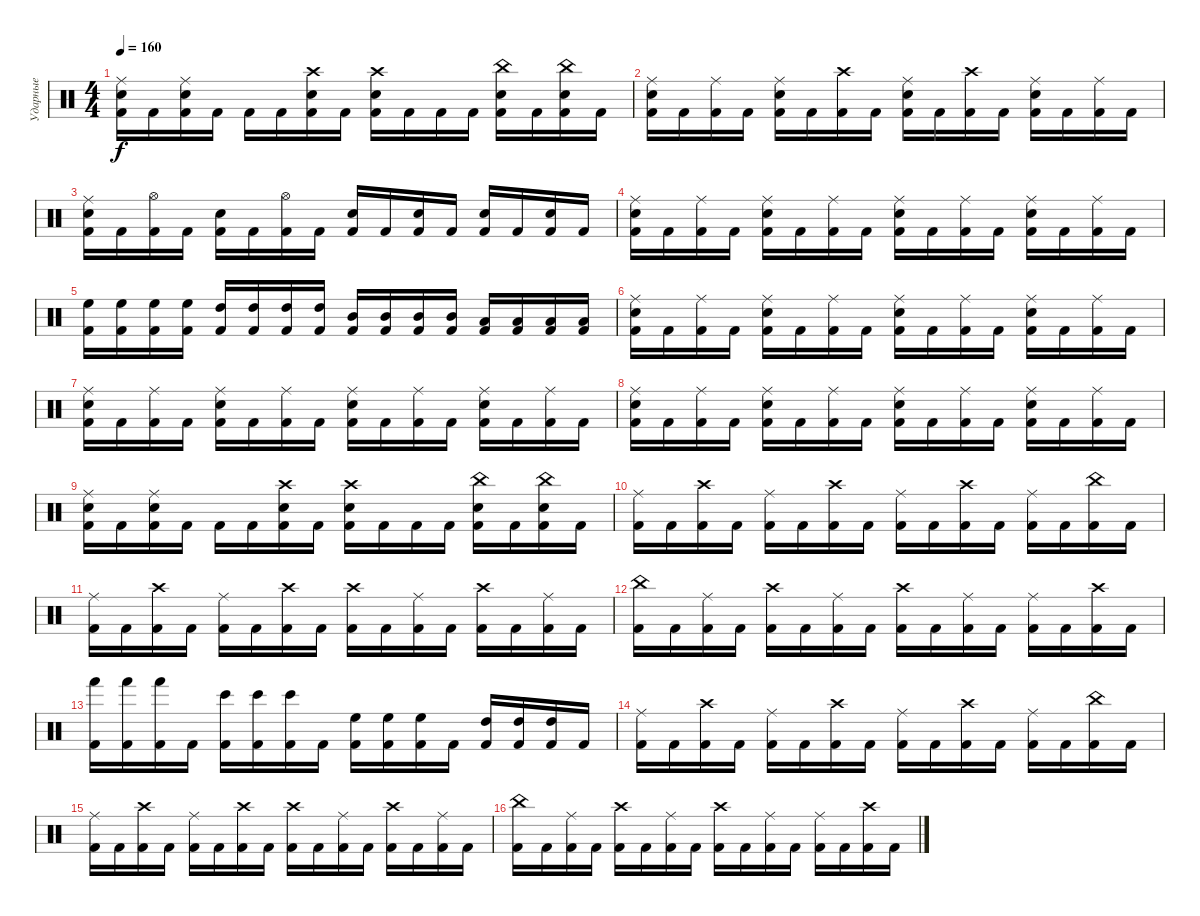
\track ("Ударные" "Ударные") {instrument percussion}
\staff {score}
\articulation defaults
\ts (4 4)
\tempo 160
\clef neutral
\ks c
("Kick (hit) 2" "Snare (hit) 2" "Ride (middle)").16{dy f} "Kick (hit) 2".16 ("Kick (hit) 2" "Snare (hit) 2" "Ride (middle)").16 "Kick (hit) 2".16 "Kick (hit) 2".16 "Kick (hit) 2".16 ("Kick (hit) 2" "Snare (hit) 2" "Crash high (hit)").16 "Kick (hit) 2".16 ("Kick (hit) 2" "Snare (hit) 2" "Crash high (hit)").16 "Kick (hit) 2".16 "Kick (hit) 2".16 "Kick (hit) 2".16 ("Kick (hit) 2" "Snare (hit) 2" "China (hit)").16 "Kick (hit) 2".16 ("Kick (hit) 2" "Snare (hit) 2" "China (hit)").16 "Kick (hit) 2".16 |
("Kick (hit) 2" "Ride (middle)" "Snare (hit) 2").16 "Kick (hit) 2".16 ("Kick (hit) 2" "Ride (middle)").16 "Kick (hit) 2".16 ("Kick (hit) 2" "Ride (middle)" "Snare (hit) 2").16 "Kick (hit) 2".16 ("Kick (hit) 2" "Crash high (hit)").16 "Kick (hit) 2".16 ("Kick (hit) 2" "Ride (middle)" "Snare (hit) 2").16 "Kick (hit) 2".16 ("Kick (hit) 2" "Crash high (hit)").16 "Kick (hit) 2".16 ("Kick (hit) 2" "Ride (middle)" "Snare (hit) 2").16 "Kick (hit) 2".16 ("Kick (hit) 2" "Ride (middle)").16 "Kick (hit) 2".16 |
("Kick (hit) 2" "Ride (middle)" "Snare (hit) 2").16 "Kick (hit) 2".16 ("Kick (hit) 2" "Hi-Hat (open)").16 "Kick (hit) 2".16 ("Kick (hit) 2" "Snare (hit) 2").16 "Kick (hit) 2".16 ("Kick (hit) 2" "Hi-Hat (open)").16 "Kick (hit) 2".16 ("Kick (hit) 2" "Snare (hit) 2").16 "Kick (hit) 2".16 ("Kick (hit) 2" "Snare (hit) 2").16 "Kick (hit) 2".16 ("Kick (hit) 2" "Snare (hit) 2").16 "Kick (hit) 2".16 ("Kick (hit) 2" "Snare (hit) 2").16 "Kick (hit) 2".16 |
("Kick (hit) 2" "Ride (middle)" "Snare (hit) 2").16 "Kick (hit) 2".16 ("Kick (hit) 2" "Ride (middle)").16 "Kick (hit) 2".16 ("Kick (hit) 2" "Ride (middle)" "Snare (hit) 2").16 "Kick (hit) 2".16 ("Kick (hit) 2" "Ride (middle)").16 "Kick (hit) 2".16 ("Kick (hit) 2" "Ride (middle)" "Snare (hit) 2").16 "Kick (hit) 2".16 ("Kick (hit) 2" "Ride (middle)").16 "Kick (hit) 2".16 ("Kick (hit) 2" "Ride (middle)" "Snare (hit) 2").16 "Kick (hit) 2".16 ("Kick (hit) 2" "Ride (middle)").16 "Kick (hit) 2".16 |
("Kick (hit) 2" "High Floor Tom (hit)").16 ("Kick (hit) 2" "High Floor Tom (hit)").16 ("Kick (hit) 2" "High Floor Tom (hit)").16 ("Kick (hit) 2" "High Floor Tom (hit)").16 ("Kick (hit) 2" "High Tom (hit)").16 ("Kick (hit) 2" "High Tom (hit)").16 ("Kick (hit) 2" "High Tom (hit)").16 ("Kick (hit) 2" "High Tom (hit)").16 ("Kick (hit) 2" "Mid Tom (hit)").16 ("Kick (hit) 2" "Mid Tom (hit)").16 ("Kick (hit) 2" "Mid Tom (hit)").16 ("Kick (hit) 2" "Mid Tom (hit)").16 ("Kick (hit) 2" "Low Tom (hit)").16 ("Kick (hit) 2" "Low Tom (hit)").16 ("Kick (hit) 2" "Low Tom (hit)").16 ("Kick (hit) 2" "Low Tom (hit)").16 |
("Kick (hit) 2" "Ride (middle)" "Snare (hit) 2").16 "Kick (hit) 2".16 ("Kick (hit) 2" "Ride (middle)").16 "Kick (hit) 2".16 ("Kick (hit) 2" "Ride (middle)" "Snare (hit) 2").16 "Kick (hit) 2".16 ("Kick (hit) 2" "Ride (middle)").16 "Kick (hit) 2".16 ("Kick (hit) 2" "Ride (middle)" "Snare (hit) 2").16 "Kick (hit) 2".16 ("Kick (hit) 2" "Ride (middle)").16 "Kick (hit) 2".16 ("Kick (hit) 2" "Ride (middle)" "Snare (hit) 2").16 "Kick (hit) 2".16 ("Kick (hit) 2" "Ride (middle)").16 "Kick (hit) 2".16 |
("Kick (hit) 2" "Ride (middle)" "Snare (hit) 2").16 "Kick (hit) 2".16 ("Kick (hit) 2" "Ride (middle)").16 "Kick (hit) 2".16 ("Kick (hit) 2" "Ride (middle)" "Snare (hit) 2").16 "Kick (hit) 2".16 ("Kick (hit) 2" "Ride (middle)").16 "Kick (hit) 2".16 ("Kick (hit) 2" "Ride (middle)" "Snare (hit) 2").16 "Kick (hit) 2".16 ("Kick (hit) 2" "Ride (middle)").16 "Kick (hit) 2".16 ("Kick (hit) 2" "Ride (middle)" "Snare (hit) 2").16 "Kick (hit) 2".16 ("Kick (hit) 2" "Ride (middle)").16 "Kick (hit) 2".16 |
("Kick (hit) 2" "Ride (middle)" "Snare (hit) 2").16 "Kick (hit) 2".16 ("Kick (hit) 2" "Ride (middle)").16 "Kick (hit) 2".16 ("Kick (hit) 2" "Ride (middle)" "Snare (hit) 2").16 "Kick (hit) 2".16 ("Kick (hit) 2" "Ride (middle)").16 "Kick (hit) 2".16 ("Kick (hit) 2" "Ride (middle)" "Snare (hit) 2").16 "Kick (hit) 2".16 ("Kick (hit) 2" "Ride (middle)").16 "Kick (hit) 2".16 ("Kick (hit) 2" "Ride (middle)" "Snare (hit) 2").16 "Kick (hit) 2".16 ("Kick (hit) 2" "Ride (middle)").16 "Kick (hit) 2".16 |
("Kick (hit) 2" "Snare (hit) 2" "Ride (middle)").16 "Kick (hit) 2".16 ("Kick (hit) 2" "Snare (hit) 2" "Ride (middle)").16 "Kick (hit) 2".16 "Kick (hit) 2".16 "Kick (hit) 2".16 ("Kick (hit) 2" "Snare (hit) 2" "Crash high (hit)").16 "Kick (hit) 2".16 ("Kick (hit) 2" "Snare (hit) 2" "Crash high (hit)").16 "Kick (hit) 2".16 "Kick (hit) 2".16 "Kick (hit) 2".16 ("Kick (hit) 2" "Snare (hit) 2" "China (hit)").16 "Kick (hit) 2".16 ("Kick (hit) 2" "Snare (hit) 2" "China (hit)").16 "Kick (hit) 2".16 |
("Kick (hit) 2" "Ride (middle)").16 "Kick (hit) 2".16 ("Kick (hit) 2" "Crash high (hit)").16 "Kick (hit) 2".16 ("Kick (hit) 2" "Ride (middle)").16 "Kick (hit) 2".16 ("Kick (hit) 2" "Crash high (hit)").16 "Kick (hit) 2".16 ("Kick (hit) 2" "Ride (middle)").16 "Kick (hit) 2".16 ("Kick (hit) 2" "Crash high (hit)").16 "Kick (hit) 2".16 ("Kick (hit) 2" "Ride (middle)").16 "Kick (hit) 2".16 ("Kick (hit) 2" "China (hit)").16 "Kick (hit) 2".16 |
("Kick (hit) 2" "Ride (middle)").16 "Kick (hit) 2".16 ("Kick (hit) 2" "Crash high (hit)").16 "Kick (hit) 2".16 ("Kick (hit) 2" "Ride (middle)").16 "Kick (hit) 2".16 ("Kick (hit) 2" "Crash high (hit)").16 "Kick (hit) 2".16 ("Kick (hit) 2" "Crash high (hit)").16 "Kick (hit) 2".16 ("Kick (hit) 2" "Ride (middle)").16 "Kick (hit) 2".16 ("Kick (hit) 2" "Crash high (hit)").16 "Kick (hit) 2".16 ("Kick (hit) 2" "Ride (middle)").16 "Kick (hit) 2".16 |
("Kick (hit) 2" "China (hit)").16 "Kick (hit) 2".16 ("Kick (hit) 2" "Ride (middle)").16 "Kick (hit) 2".16 ("Kick (hit) 2" "Crash high (hit)").16 "Kick (hit) 2".16 ("Kick (hit) 2" "Ride (middle)").16 "Kick (hit) 2".16 ("Kick (hit) 2" "Crash high (hit)").16 "Kick (hit) 2".16 ("Kick (hit) 2" "Ride (middle)").16 "Kick (hit) 2".16 ("Kick (hit) 2" "Ride (middle)").16 "Kick (hit) 2".16 ("Kick (hit) 2" "Crash high (hit)").16 "Kick (hit) 2".16 |
("Kick (hit) 2" "Hand (hit)").16 ("Kick (hit) 2" "Hand (hit)").16 ("Kick (hit) 2" "Hand (hit)").16 "Kick (hit) 2".16 ("Kick (hit) 2" "Bongo High (hit)").16 ("Kick (hit) 2" "Bongo High (hit)").16 ("Kick (hit) 2" "Bongo High (hit)").16 "Kick (hit) 2".16 ("Kick (hit) 2" "High Floor Tom (hit)").16 ("Kick (hit) 2" "High Floor Tom (hit)").16 ("Kick (hit) 2" "High Floor Tom (hit)").16 "Kick (hit) 2".16 ("Kick (hit) 2" "High Tom (hit)").16 ("Kick (hit) 2" "High Tom (hit)").16 ("Kick (hit) 2" "High Tom (hit)").16 "Kick (hit) 2".16 |
("Kick (hit) 2" "Ride (middle)").16 "Kick (hit) 2".16 ("Kick (hit) 2" "Crash high (hit)").16 "Kick (hit) 2".16 ("Kick (hit) 2" "Ride (middle)").16 "Kick (hit) 2".16 ("Kick (hit) 2" "Crash high (hit)").16 "Kick (hit) 2".16 ("Kick (hit) 2" "Ride (middle)").16 "Kick (hit) 2".16 ("Kick (hit) 2" "Crash high (hit)").16 "Kick (hit) 2".16 ("Kick (hit) 2" "Ride (middle)").16 "Kick (hit) 2".16 ("Kick (hit) 2" "China (hit)").16 "Kick (hit) 2".16 |
("Kick (hit) 2" "Ride (middle)").16 "Kick (hit) 2".16 ("Kick (hit) 2" "Crash high (hit)").16 "Kick (hit) 2".16 ("Kick (hit) 2" "Ride (middle)").16 "Kick (hit) 2".16 ("Kick (hit) 2" "Crash high (hit)").16 "Kick (hit) 2".16 ("Kick (hit) 2" "Crash high (hit)").16 "Kick (hit) 2".16 ("Kick (hit) 2" "Ride (middle)").16 "Kick (hit) 2".16 ("Kick (hit) 2" "Crash high (hit)").16 "Kick (hit) 2".16 ("Kick (hit) 2" "Ride (middle)").16 "Kick (hit) 2".16 |
("Kick (hit) 2" "China (hit)").16 "Kick (hit) 2".16 ("Kick (hit) 2" "Ride (middle)").16 "Kick (hit) 2".16 ("Kick (hit) 2" "Crash high (hit)").16 "Kick (hit) 2".16 ("Kick (hit) 2" "Ride (middle)").16 "Kick (hit) 2".16 ("Kick (hit) 2" "Crash high (hit)").16 "Kick (hit) 2".16 ("Kick (hit) 2" "Ride (middle)").16 "Kick (hit) 2".16 ("Kick (hit) 2" "Ride (middle)").16 "Kick (hit) 2".16 ("Kick (hit) 2" "Crash high (hit)").16 "Kick (hit) 2".16
